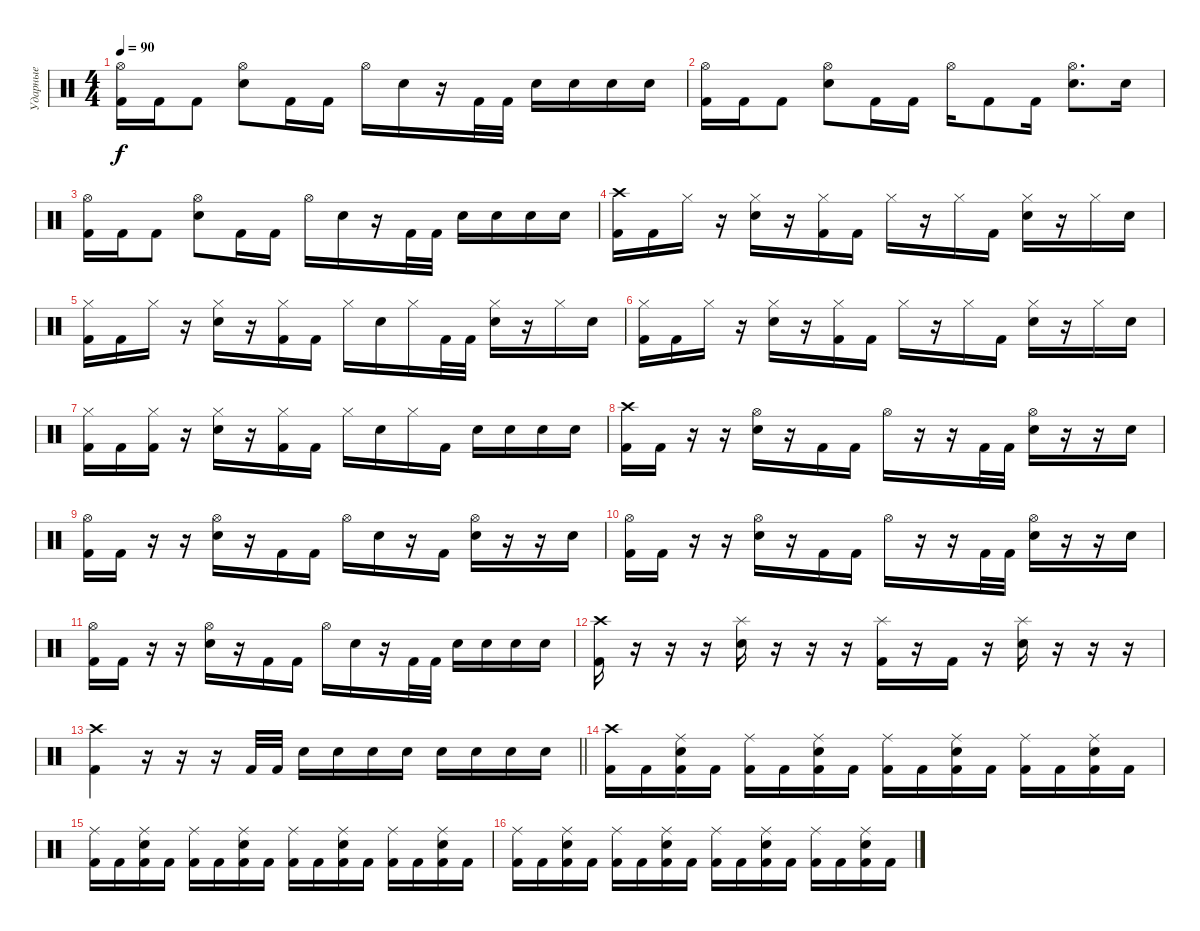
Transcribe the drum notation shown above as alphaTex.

\track ("Ударные" "Ударные") {instrument percussion}
\staff {score}
\articulation defaults
\ts (4 4)
\tempo 90
\clef neutral
\ks c
("Hi-Hat (open)" "Kick (hit) 2").16{dy f} "Kick (hit) 2".16 "Kick (hit) 2".8 ("Hi-Hat (open)" "Snare (hit) 2").8 "Kick (hit) 2".16 "Kick (hit) 2".16 "Hi-Hat (open)".16 "Snare (hit) 2".16 r.16 "Kick (hit) 2".32 "Kick (hit) 2".32 "Snare (hit) 2".16 "Snare (hit) 2".16 "Snare (hit) 2".16 "Snare (hit) 2".16 |
("Hi-Hat (open)" "Kick (hit) 2").16 "Kick (hit) 2".16 "Kick (hit) 2".8 ("Hi-Hat (open)" "Snare (hit) 2").8 "Kick (hit) 2".16 "Kick (hit) 2".16 "Hi-Hat (open)".16 "Kick (hit) 2".8 "Kick (hit) 2".16 ("Hi-Hat (open)" "Snare (hit) 2").8{d} "Snare (hit) 2".16 |
("Hi-Hat (open)" "Kick (hit) 2").16 "Kick (hit) 2".16 "Kick (hit) 2".8 ("Hi-Hat (open)" "Snare (hit) 2").8 "Kick (hit) 2".16 "Kick (hit) 2".16 "Hi-Hat (open)".16 "Snare (hit) 2".16 r.16 "Kick (hit) 2".32 "Kick (hit) 2".32 "Snare (hit) 2".16 "Snare (hit) 2".16 "Snare (hit) 2".16 "Snare (hit) 2".16 |
("Crash high (hit)" "Kick (hit) 2").16 "Kick (hit) 2".16 "Hi-Hat (closed)".16 r.16 ("Hi-Hat (closed)" "Snare (hit) 2").16 r.16 ("Hi-Hat (closed)" "Kick (hit) 2").16 "Kick (hit) 2".16 "Hi-Hat (closed)".16 r.16 "Hi-Hat (closed)".16 "Kick (hit) 2".16 ("Hi-Hat (closed)" "Snare (hit) 2").16 r.16 "Hi-Hat (closed)".16 "Snare (hit) 2".16 |
("Hi-Hat (closed)" "Kick (hit) 2").16 "Kick (hit) 2".16 "Hi-Hat (closed)".16 r.16 ("Hi-Hat (closed)" "Snare (hit) 2").16 r.16 ("Hi-Hat (closed)" "Kick (hit) 2").16 "Kick (hit) 2".16 "Hi-Hat (closed)".16 "Snare (hit) 2".16 "Hi-Hat (closed)".16 "Kick (hit) 2".32 "Kick (hit) 2".32 ("Hi-Hat (closed)" "Snare (hit) 2").16 r.16 "Hi-Hat (closed)".16 "Snare (hit) 2".16 |
("Hi-Hat (closed)" "Kick (hit) 2").16 "Kick (hit) 2".16 "Hi-Hat (closed)".16 r.16 ("Hi-Hat (closed)" "Snare (hit) 2").16 r.16 ("Hi-Hat (closed)" "Kick (hit) 2").16 "Kick (hit) 2".16 "Hi-Hat (closed)".16 r.16 "Hi-Hat (closed)".16 "Kick (hit) 2".16 ("Hi-Hat (closed)" "Snare (hit) 2").16 r.16 "Hi-Hat (closed)".16 "Snare (hit) 2".16 |
("Hi-Hat (closed)" "Kick (hit) 2").16 "Kick (hit) 2".16 ("Hi-Hat (closed)" "Kick (hit) 2").16 r.16 ("Hi-Hat (closed)" "Snare (hit) 2").16 r.16 ("Hi-Hat (closed)" "Kick (hit) 2").16 "Kick (hit) 2".16 "Hi-Hat (closed)".16 "Snare (hit) 2".16 "Hi-Hat (closed)".16 "Kick (hit) 2".16 "Snare (hit) 2".16 "Snare (hit) 2".16 "Snare (hit) 2".16 "Snare (hit) 2".16 |
("Crash high (hit)" "Kick (hit) 2").16 "Kick (hit) 2".16 r.16 r.16 ("Hi-Hat (open)" "Snare (hit) 2").16 r.16 "Kick (hit) 2".16 "Kick (hit) 2".16 "Hi-Hat (open)".16 r.16 r.16 "Kick (hit) 2".32 "Kick (hit) 2".32 ("Hi-Hat (open)" "Snare (hit) 2").16 r.16 r.16 "Snare (hit) 2".16 |
("Hi-Hat (open)" "Kick (hit) 2").16 "Kick (hit) 2".16 r.16 r.16 ("Hi-Hat (open)" "Snare (hit) 2").16 r.16 "Kick (hit) 2".16 "Kick (hit) 2".16 "Hi-Hat (open)".16 "Snare (hit) 2".16 r.16 "Kick (hit) 2".16 ("Hi-Hat (open)" "Snare (hit) 2").16 r.16 r.16 "Snare (hit) 2".16 |
("Hi-Hat (open)" "Kick (hit) 2").16 "Kick (hit) 2".16 r.16 r.16 ("Hi-Hat (open)" "Snare (hit) 2").16 r.16 "Kick (hit) 2".16 "Kick (hit) 2".16 "Hi-Hat (open)".16 r.16 r.16 "Kick (hit) 2".32 "Kick (hit) 2".32 ("Hi-Hat (open)" "Snare (hit) 2").16 r.16 r.16 "Snare (hit) 2".16 |
("Hi-Hat (open)" "Kick (hit) 2").16 "Kick (hit) 2".16 r.16 r.16 ("Hi-Hat (open)" "Snare (hit) 2").16 r.16 "Kick (hit) 2".16 "Kick (hit) 2".16 "Hi-Hat (open)".16 "Snare (hit) 2".16 r.16 "Kick (hit) 2".32 "Kick (hit) 2".32 "Snare (hit) 2".16 "Snare (hit) 2".16 "Snare (hit) 2".16 "Snare (hit) 2".16 |
("Crash high (hit)" "Kick (hit) 2").16 r.16 r.16 r.16 ("Splash (hit)" "Snare (hit) 2").16 r.16 r.16 r.16 ("Splash (hit)" "Kick (hit) 2").16 r.16 "Kick (hit) 2".16 r.16 ("Splash (hit)" "Snare (hit) 2").16 r.16 r.16 r.16 |
\barLineRight lightlight
("Crash high (hit)" "Kick (hit) 2").4 r.16 r.16 r.16 "Kick (hit) 2".32 "Kick (hit) 2".32 "Snare (hit) 2".16 "Snare (hit) 2".16 "Snare (hit) 2".16 "Snare (hit) 2".16 "Snare (hit) 2".16 "Snare (hit) 2".16 "Snare (hit) 2".16 "Snare (hit) 2".16 |
("Crash high (hit)" "Kick (hit) 2").16 "Kick (hit) 2".16 ("Ride (middle)" "Snare (hit) 2" "Kick (hit) 2").16 "Kick (hit) 2".16 ("Ride (middle)" "Kick (hit) 2").16 "Kick (hit) 2".16 ("Ride (middle)" "Snare (hit) 2" "Kick (hit) 2").16 "Kick (hit) 2".16 ("Ride (middle)" "Kick (hit) 2").16 "Kick (hit) 2".16 ("Ride (middle)" "Snare (hit) 2" "Kick (hit) 2").16 "Kick (hit) 2".16 ("Ride (middle)" "Kick (hit) 2").16 "Kick (hit) 2".16 ("Ride (middle)" "Snare (hit) 2" "Kick (hit) 2").16 "Kick (hit) 2".16 |
("Ride (middle)" "Kick (hit) 2").16 "Kick (hit) 2".16 ("Ride (middle)" "Snare (hit) 2" "Kick (hit) 2").16 "Kick (hit) 2".16 ("Ride (middle)" "Kick (hit) 2").16 "Kick (hit) 2".16 ("Ride (middle)" "Snare (hit) 2" "Kick (hit) 2").16 "Kick (hit) 2".16 ("Ride (middle)" "Kick (hit) 2").16 "Kick (hit) 2".16 ("Ride (middle)" "Snare (hit) 2" "Kick (hit) 2").16 "Kick (hit) 2".16 ("Ride (middle)" "Kick (hit) 2").16 "Kick (hit) 2".16 ("Ride (middle)" "Snare (hit) 2" "Kick (hit) 2").16 "Kick (hit) 2".16 |
("Ride (middle)" "Kick (hit) 2").16 "Kick (hit) 2".16 ("Ride (middle)" "Snare (hit) 2" "Kick (hit) 2").16 "Kick (hit) 2".16 ("Ride (middle)" "Kick (hit) 2").16 "Kick (hit) 2".16 ("Ride (middle)" "Snare (hit) 2" "Kick (hit) 2").16 "Kick (hit) 2".16 ("Ride (middle)" "Kick (hit) 2").16 "Kick (hit) 2".16 ("Ride (middle)" "Snare (hit) 2" "Kick (hit) 2").16 "Kick (hit) 2".16 ("Ride (middle)" "Kick (hit) 2").16 "Kick (hit) 2".16 ("Ride (middle)" "Snare (hit) 2" "Kick (hit) 2").16 "Kick (hit) 2".16
